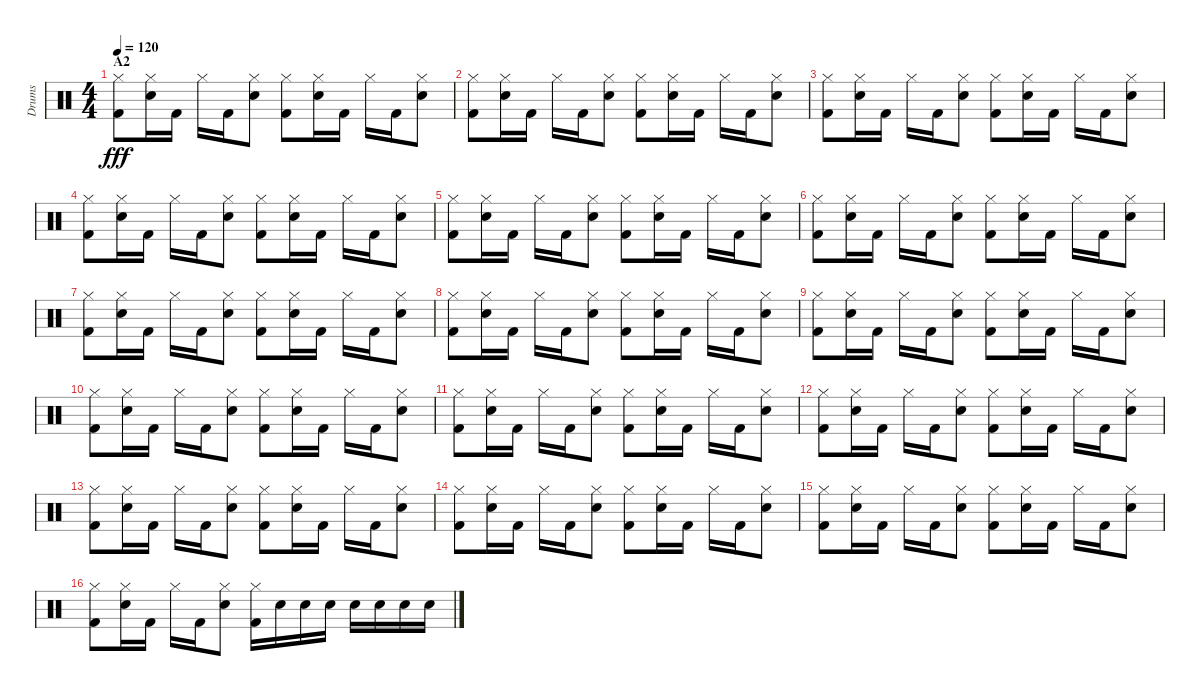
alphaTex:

\track ("Drums" "Drums") {instrument percussion}
\staff {score}
\articulation defaults
\ts (4 4)
\section ("" "A2")
\tempo 120
\clef neutral
\ks c
("Hi-Hat (closed)" "Kick (hit) 2").8{dy fff} ("Hi-Hat (closed)" "Snare (hit) 2").16 "Kick (hit) 2".16 "Hi-Hat (closed)".16 "Kick (hit) 2".16 ("Hi-Hat (closed)" "Snare (hit) 2").8 ("Hi-Hat (closed)" "Kick (hit) 2").8 ("Hi-Hat (closed)" "Snare (hit) 2").16 "Kick (hit) 2".16 "Hi-Hat (closed)".16 "Kick (hit) 2".16 ("Hi-Hat (closed)" "Snare (hit) 2").8 |
("Hi-Hat (closed)" "Kick (hit) 2").8 ("Hi-Hat (closed)" "Snare (hit) 2").16 "Kick (hit) 2".16 "Hi-Hat (closed)".16 "Kick (hit) 2".16 ("Hi-Hat (closed)" "Snare (hit) 2").8 ("Hi-Hat (closed)" "Kick (hit) 2").8 ("Hi-Hat (closed)" "Snare (hit) 2").16 "Kick (hit) 2".16 "Hi-Hat (closed)".16 "Kick (hit) 2".16 ("Hi-Hat (closed)" "Snare (hit) 2").8 |
("Hi-Hat (closed)" "Kick (hit) 2").8 ("Hi-Hat (closed)" "Snare (hit) 2").16 "Kick (hit) 2".16 "Hi-Hat (closed)".16 "Kick (hit) 2".16 ("Hi-Hat (closed)" "Snare (hit) 2").8 ("Hi-Hat (closed)" "Kick (hit) 2").8 ("Hi-Hat (closed)" "Snare (hit) 2").16 "Kick (hit) 2".16 "Hi-Hat (closed)".16 "Kick (hit) 2".16 ("Hi-Hat (closed)" "Snare (hit) 2").8 |
("Hi-Hat (closed)" "Kick (hit) 2").8 ("Hi-Hat (closed)" "Snare (hit) 2").16 "Kick (hit) 2".16 "Hi-Hat (closed)".16 "Kick (hit) 2".16 ("Hi-Hat (closed)" "Snare (hit) 2").8 ("Hi-Hat (closed)" "Kick (hit) 2").8 ("Hi-Hat (closed)" "Snare (hit) 2").16 "Kick (hit) 2".16 "Hi-Hat (closed)".16 "Kick (hit) 2".16 ("Hi-Hat (closed)" "Snare (hit) 2").8 |
("Hi-Hat (closed)" "Kick (hit) 2").8 ("Hi-Hat (closed)" "Snare (hit) 2").16 "Kick (hit) 2".16 "Hi-Hat (closed)".16 "Kick (hit) 2".16 ("Hi-Hat (closed)" "Snare (hit) 2").8 ("Hi-Hat (closed)" "Kick (hit) 2").8 ("Hi-Hat (closed)" "Snare (hit) 2").16 "Kick (hit) 2".16 "Hi-Hat (closed)".16 "Kick (hit) 2".16 ("Hi-Hat (closed)" "Snare (hit) 2").8 |
("Hi-Hat (closed)" "Kick (hit) 2").8 ("Hi-Hat (closed)" "Snare (hit) 2").16 "Kick (hit) 2".16 "Hi-Hat (closed)".16 "Kick (hit) 2".16 ("Hi-Hat (closed)" "Snare (hit) 2").8 ("Hi-Hat (closed)" "Kick (hit) 2").8 ("Hi-Hat (closed)" "Snare (hit) 2").16 "Kick (hit) 2".16 "Hi-Hat (closed)".16 "Kick (hit) 2".16 ("Hi-Hat (closed)" "Snare (hit) 2").8 |
("Hi-Hat (closed)" "Kick (hit) 2").8 ("Hi-Hat (closed)" "Snare (hit) 2").16 "Kick (hit) 2".16 "Hi-Hat (closed)".16 "Kick (hit) 2".16 ("Hi-Hat (closed)" "Snare (hit) 2").8 ("Hi-Hat (closed)" "Kick (hit) 2").8 ("Hi-Hat (closed)" "Snare (hit) 2").16 "Kick (hit) 2".16 "Hi-Hat (closed)".16 "Kick (hit) 2".16 ("Hi-Hat (closed)" "Snare (hit) 2").8 |
("Hi-Hat (closed)" "Kick (hit) 2").8 ("Hi-Hat (closed)" "Snare (hit) 2").16 "Kick (hit) 2".16 "Hi-Hat (closed)".16 "Kick (hit) 2".16 ("Hi-Hat (closed)" "Snare (hit) 2").8 ("Hi-Hat (closed)" "Kick (hit) 2").8 ("Hi-Hat (closed)" "Snare (hit) 2").16 "Kick (hit) 2".16 "Hi-Hat (closed)".16 "Kick (hit) 2".16 ("Hi-Hat (closed)" "Snare (hit) 2").8 |
("Hi-Hat (closed)" "Kick (hit) 2").8 ("Hi-Hat (closed)" "Snare (hit) 2").16 "Kick (hit) 2".16 "Hi-Hat (closed)".16 "Kick (hit) 2".16 ("Hi-Hat (closed)" "Snare (hit) 2").8 ("Hi-Hat (closed)" "Kick (hit) 2").8 ("Hi-Hat (closed)" "Snare (hit) 2").16 "Kick (hit) 2".16 "Hi-Hat (closed)".16 "Kick (hit) 2".16 ("Hi-Hat (closed)" "Snare (hit) 2").8 |
("Hi-Hat (closed)" "Kick (hit) 2").8 ("Hi-Hat (closed)" "Snare (hit) 2").16 "Kick (hit) 2".16 "Hi-Hat (closed)".16 "Kick (hit) 2".16 ("Hi-Hat (closed)" "Snare (hit) 2").8 ("Hi-Hat (closed)" "Kick (hit) 2").8 ("Hi-Hat (closed)" "Snare (hit) 2").16 "Kick (hit) 2".16 "Hi-Hat (closed)".16 "Kick (hit) 2".16 ("Hi-Hat (closed)" "Snare (hit) 2").8 |
("Hi-Hat (closed)" "Kick (hit) 2").8 ("Hi-Hat (closed)" "Snare (hit) 2").16 "Kick (hit) 2".16 "Hi-Hat (closed)".16 "Kick (hit) 2".16 ("Hi-Hat (closed)" "Snare (hit) 2").8 ("Hi-Hat (closed)" "Kick (hit) 2").8 ("Hi-Hat (closed)" "Snare (hit) 2").16 "Kick (hit) 2".16 "Hi-Hat (closed)".16 "Kick (hit) 2".16 ("Hi-Hat (closed)" "Snare (hit) 2").8 |
("Hi-Hat (closed)" "Kick (hit) 2").8 ("Hi-Hat (closed)" "Snare (hit) 2").16 "Kick (hit) 2".16 "Hi-Hat (closed)".16 "Kick (hit) 2".16 ("Hi-Hat (closed)" "Snare (hit) 2").8 ("Hi-Hat (closed)" "Kick (hit) 2").8 ("Hi-Hat (closed)" "Snare (hit) 2").16 "Kick (hit) 2".16 "Hi-Hat (closed)".16 "Kick (hit) 2".16 ("Hi-Hat (closed)" "Snare (hit) 2").8 |
("Hi-Hat (closed)" "Kick (hit) 2").8 ("Hi-Hat (closed)" "Snare (hit) 2").16 "Kick (hit) 2".16 "Hi-Hat (closed)".16 "Kick (hit) 2".16 ("Hi-Hat (closed)" "Snare (hit) 2").8 ("Hi-Hat (closed)" "Kick (hit) 2").8 ("Hi-Hat (closed)" "Snare (hit) 2").16 "Kick (hit) 2".16 "Hi-Hat (closed)".16 "Kick (hit) 2".16 ("Hi-Hat (closed)" "Snare (hit) 2").8 |
("Hi-Hat (closed)" "Kick (hit) 2").8 ("Hi-Hat (closed)" "Snare (hit) 2").16 "Kick (hit) 2".16 "Hi-Hat (closed)".16 "Kick (hit) 2".16 ("Hi-Hat (closed)" "Snare (hit) 2").8 ("Hi-Hat (closed)" "Kick (hit) 2").8 ("Hi-Hat (closed)" "Snare (hit) 2").16 "Kick (hit) 2".16 "Hi-Hat (closed)".16 "Kick (hit) 2".16 ("Hi-Hat (closed)" "Snare (hit) 2").8 |
("Hi-Hat (closed)" "Kick (hit) 2").8 ("Hi-Hat (closed)" "Snare (hit) 2").16 "Kick (hit) 2".16 "Hi-Hat (closed)".16 "Kick (hit) 2".16 ("Hi-Hat (closed)" "Snare (hit) 2").8 ("Hi-Hat (closed)" "Kick (hit) 2").8 ("Hi-Hat (closed)" "Snare (hit) 2").16 "Kick (hit) 2".16 "Hi-Hat (closed)".16 "Kick (hit) 2".16 ("Hi-Hat (closed)" "Snare (hit) 2").8 |
("Hi-Hat (closed)" "Kick (hit) 2").8 ("Hi-Hat (closed)" "Snare (hit) 2").16 "Kick (hit) 2".16 "Hi-Hat (closed)".16 "Kick (hit) 2".16 ("Hi-Hat (closed)" "Snare (hit) 2").8 ("Hi-Hat (closed)" "Kick (hit) 2").16 "Snare (hit) 2".16 "Snare (hit) 2".16 "Snare (hit) 2".16 "Snare (hit) 2".16 "Snare (hit) 2".16 "Snare (hit) 2".16 "Snare (hit) 2".16
